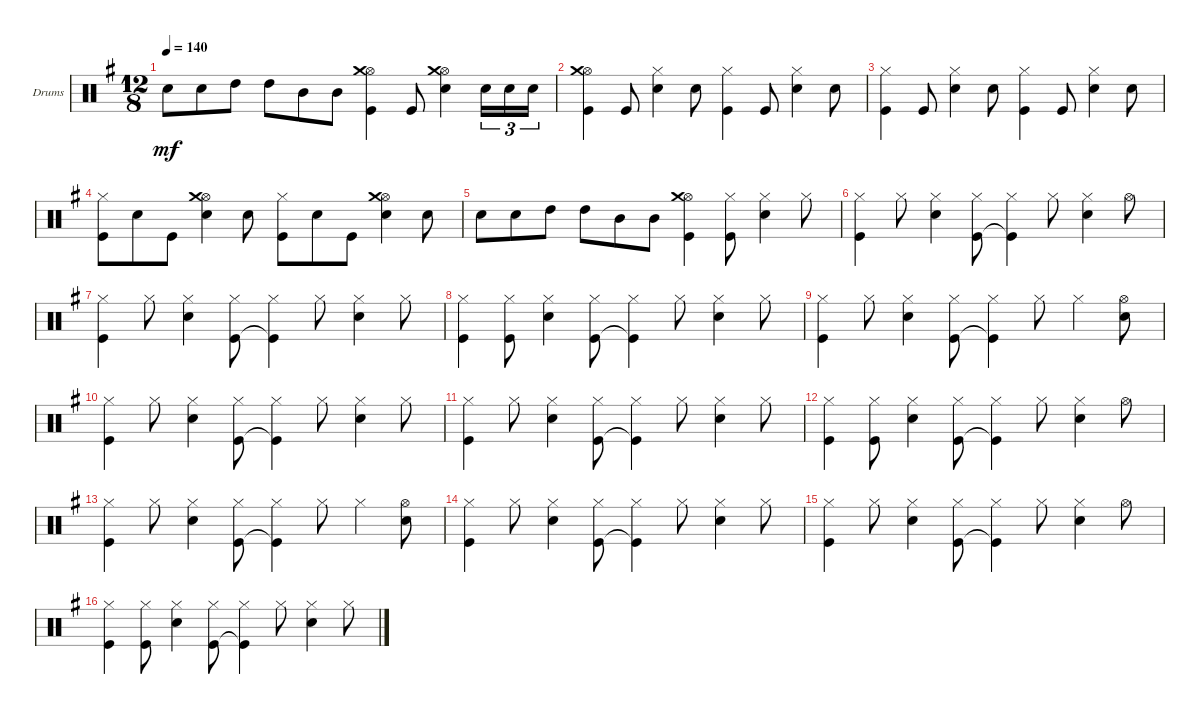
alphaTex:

\defaultSystemsLayout 4
\bracketExtendMode groupsimilarinstruments
\firstSystemTrackNameOrientation horizontal
\otherSystemsTrackNameOrientation horizontal
\track ("Drumkit" "Drums") {instrument percussion}
\staff {score}
\articulation defaults
\ts (12 8)
\tempo 140
\clef neutral
\ks g "Snare (hit) 2".8{dy mf} "Snare (hit) 2".8 "High Tom (hit)".8 "High Tom (hit)".8 "Mid Tom (hit)".8 "Mid Tom (hit)".8
("Kick (hit)" "Hi-Hat (open)" "Crash medium (hit)").4 "Kick (hit)".8 ("Snare (hit) 2" "Hi-Hat (open)" "Crash medium (hit)").4 "Snare (hit) 2".16{tu (3 2)} "Snare (hit) 2".16{tu (3 2)} "Snare (hit) 2".16{tu (3 2)} |
("Hi-Hat (open)" "Kick (hit)" "Crash medium (hit)").4 "Kick (hit)".8 ("Hi-Hat (closed)" "Snare (hit) 2").4 "Snare (hit) 2".8 ("Hi-Hat (closed)" "Kick (hit)").4 "Kick (hit)".8 ("Hi-Hat (closed)" "Snare (hit) 2").4 "Snare (hit) 2".8 |
("Hi-Hat (closed)" "Kick (hit)").4 "Kick (hit)".8 ("Hi-Hat (closed)" "Snare (hit) 2").4 "Snare (hit) 2".8 ("Hi-Hat (closed)" "Kick (hit)").4 "Kick (hit)".8 ("Hi-Hat (closed)" "Snare (hit) 2").4 "Snare (hit) 2".8 |
("Hi-Hat (closed)" "Kick (hit)").8 "Snare (hit) 2".8 "Kick (hit)".8 ("Snare (hit) 2" "Hi-Hat (open)" "Crash medium (hit)").4 "Snare (hit) 2".8 ("Hi-Hat (closed)" "Kick (hit)").8 "Snare (hit) 2".8 "Kick (hit)".8 ("Snare (hit) 2" "Hi-Hat (open)" "Crash medium (hit)").4 "Snare (hit) 2".8 |
"Snare (hit) 2".8 "Snare (hit) 2".8 "High Tom (hit)".8 "High Tom (hit)".8 "Mid Tom (hit)".8 "Mid Tom (hit)".8 ("Hi-Hat (open)" "Crash medium (hit)" "Kick (hit)").4 ("Kick (hit)" "Hi-Hat (closed)").8 ("Hi-Hat (closed)" "Snare (hit) 2").4 "Hi-Hat (closed)".8 |
("Hi-Hat (closed)" "Kick (hit)").4 "Hi-Hat (closed)".8 ("Hi-Hat (closed)" "Snare (hit) 2").4 ("Hi-Hat (closed)" "Kick (hit)").8 ("Hi-Hat (closed)" "Kick (hit)"{t}).4 "Hi-Hat (closed)".8 ("Hi-Hat (closed)" "Snare (hit) 2").4 "Hi-Hat (open)".8 |
("Hi-Hat (closed)" "Kick (hit)").4 "Hi-Hat (closed)".8 ("Hi-Hat (closed)" "Snare (hit) 2").4 ("Hi-Hat (closed)" "Kick (hit)").8 ("Hi-Hat (closed)" "Kick (hit)"{t}).4 "Hi-Hat (closed)".8 ("Hi-Hat (closed)" "Snare (hit) 2").4 "Hi-Hat (closed)".8 |
("Hi-Hat (closed)" "Kick (hit)").4 ("Hi-Hat (closed)" "Kick (hit)").8 ("Hi-Hat (closed)" "Snare (hit) 2").4 ("Hi-Hat (closed)" "Kick (hit)").8 ("Hi-Hat (closed)" "Kick (hit)"{t}).4 "Hi-Hat (closed)".8 ("Hi-Hat (closed)" "Snare (hit) 2").4 "Hi-Hat (closed)".8 |
("Hi-Hat (closed)" "Kick (hit)").4 "Hi-Hat (closed)".8 ("Hi-Hat (closed)" "Snare (hit) 2").4 ("Hi-Hat (closed)" "Kick (hit)").8 ("Hi-Hat (closed)" "Kick (hit)"{t}).4 "Hi-Hat (closed)".8 "Hi-Hat (closed)".4 ("Hi-Hat (open)" "Snare (hit) 2").8 |
("Hi-Hat (closed)" "Kick (hit)").4 "Hi-Hat (closed)".8 ("Hi-Hat (closed)" "Snare (hit) 2").4 ("Hi-Hat (closed)" "Kick (hit)").8 ("Hi-Hat (closed)" "Kick (hit)"{t}).4 "Hi-Hat (closed)".8 ("Hi-Hat (closed)" "Snare (hit) 2").4 "Hi-Hat (closed)".8 |
("Hi-Hat (closed)" "Kick (hit)").4 "Hi-Hat (closed)".8 ("Hi-Hat (closed)" "Snare (hit) 2").4 ("Hi-Hat (closed)" "Kick (hit)").8 ("Hi-Hat (closed)" "Kick (hit)"{t}).4 "Hi-Hat (closed)".8 ("Hi-Hat (closed)" "Snare (hit) 2").4 "Hi-Hat (closed)".8 |
("Hi-Hat (closed)" "Kick (hit)").4 ("Hi-Hat (closed)" "Kick (hit)").8 ("Hi-Hat (closed)" "Snare (hit) 2").4 ("Hi-Hat (closed)" "Kick (hit)").8 ("Hi-Hat (closed)" "Kick (hit)"{t}).4 "Hi-Hat (closed)".8 ("Hi-Hat (closed)" "Snare (hit) 2").4 "Hi-Hat (open)".8 |
("Hi-Hat (closed)" "Kick (hit)").4 "Hi-Hat (closed)".8 ("Hi-Hat (closed)" "Snare (hit) 2").4 ("Hi-Hat (closed)" "Kick (hit)").8 ("Hi-Hat (closed)" "Kick (hit)"{t}).4 "Hi-Hat (closed)".8 "Hi-Hat (closed)".4 ("Hi-Hat (open)" "Snare (hit) 2").8 |
("Hi-Hat (closed)" "Kick (hit)").4 "Hi-Hat (closed)".8 ("Hi-Hat (closed)" "Snare (hit) 2").4 ("Hi-Hat (closed)" "Kick (hit)").8 ("Hi-Hat (closed)" "Kick (hit)"{t}).4 "Hi-Hat (closed)".8 ("Hi-Hat (closed)" "Snare (hit) 2").4 "Hi-Hat (closed)".8 |
("Hi-Hat (closed)" "Kick (hit)").4 "Hi-Hat (closed)".8 ("Hi-Hat (closed)" "Snare (hit) 2").4 ("Hi-Hat (closed)" "Kick (hit)").8 ("Hi-Hat (closed)" "Kick (hit)"{t}).4 "Hi-Hat (closed)".8 ("Hi-Hat (closed)" "Snare (hit) 2").4 "Hi-Hat (open)".8 |
("Hi-Hat (closed)" "Kick (hit)").4 ("Hi-Hat (closed)" "Kick (hit)").8 ("Hi-Hat (closed)" "Snare (hit) 2").4 ("Hi-Hat (closed)" "Kick (hit)").8 ("Hi-Hat (closed)" "Kick (hit)"{t}).4 "Hi-Hat (closed)".8 ("Hi-Hat (closed)" "Snare (hit) 2").4 "Hi-Hat (closed)".8
